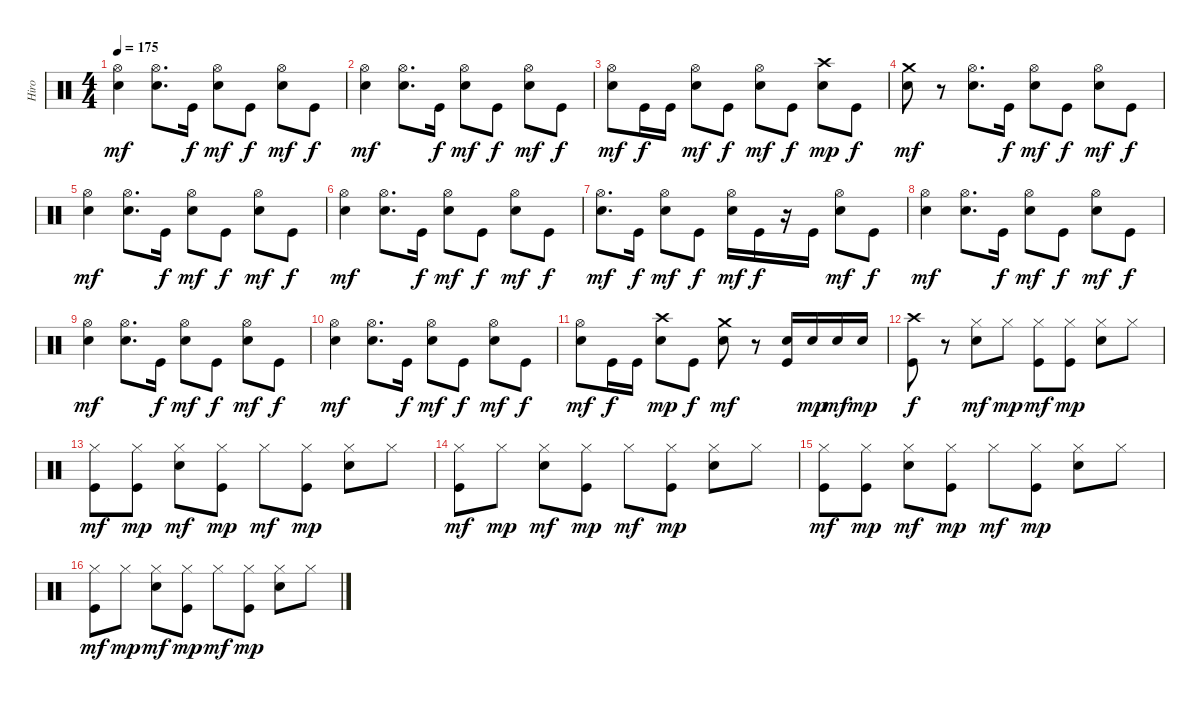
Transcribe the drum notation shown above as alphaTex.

\track ("Hiro" "Hiro") {instrument percussion}
\staff {score}
\articulation defaults
\ts (4 4)
\tempo 175
\clef neutral
\ks c
("Electric Snare (hit)" "Hi-Hat (open)").4{dy mf} ("Electric Snare (hit)" "Hi-Hat (open)").8{d} "Kick (hit)".16{dy f} ("Electric Snare (hit)" "Hi-Hat (open)").8{dy mf} "Kick (hit)".8{dy f} ("Electric Snare (hit)" "Hi-Hat (open)").8{dy mf} "Kick (hit)".8{dy f} |
("Electric Snare (hit)" "Hi-Hat (open)").4{dy mf} ("Electric Snare (hit)" "Hi-Hat (open)").8{d} "Kick (hit)".16{dy f} ("Electric Snare (hit)" "Hi-Hat (open)").8{dy mf} "Kick (hit)".8{dy f} ("Electric Snare (hit)" "Hi-Hat (open)").8{dy mf} "Kick (hit)".8{dy f} |
("Electric Snare (hit)" "Hi-Hat (open)").8{dy mf} "Kick (hit)".16{dy f} "Kick (hit)".16 ("Electric Snare (hit)" "Hi-Hat (open)").8{dy mf} "Kick (hit)".8{dy f} ("Electric Snare (hit)" "Hi-Hat (open)").8{dy mf} "Kick (hit)".8{dy f} ("Crash high (hit)" "Electric Snare (hit)").8{dy mp} "Kick (hit)".8{dy f} |
("Crash medium (hit)" "Electric Snare (hit)").8{dy mf} r.8 ("Electric Snare (hit)" "Hi-Hat (open)").8{d} "Kick (hit)".16{dy f} ("Electric Snare (hit)" "Hi-Hat (open)").8{dy mf} "Kick (hit)".8{dy f} ("Electric Snare (hit)" "Hi-Hat (open)").8{dy mf} "Kick (hit)".8{dy f} |
("Electric Snare (hit)" "Hi-Hat (open)").4{dy mf} ("Electric Snare (hit)" "Hi-Hat (open)").8{d} "Kick (hit)".16{dy f} ("Electric Snare (hit)" "Hi-Hat (open)").8{dy mf} "Kick (hit)".8{dy f} ("Electric Snare (hit)" "Hi-Hat (open)").8{dy mf} "Kick (hit)".8{dy f} |
("Electric Snare (hit)" "Hi-Hat (open)").4{dy mf} ("Electric Snare (hit)" "Hi-Hat (open)").8{d} "Kick (hit)".16{dy f} ("Electric Snare (hit)" "Hi-Hat (open)").8{dy mf} "Kick (hit)".8{dy f} ("Electric Snare (hit)" "Hi-Hat (open)").8{dy mf} "Kick (hit)".8{dy f} |
("Electric Snare (hit)" "Hi-Hat (open)").8{d dy mf} "Kick (hit)".16{dy f} ("Electric Snare (hit)" "Hi-Hat (open)").8{dy mf} "Kick (hit)".8{dy f} ("Electric Snare (hit)" "Hi-Hat (open)").16{dy mf} "Kick (hit)".16{dy f} r.16 "Kick (hit)".16 ("Electric Snare (hit)" "Hi-Hat (open)").8{dy mf} "Kick (hit)".8{dy f} |
("Electric Snare (hit)" "Hi-Hat (open)").4{dy mf} ("Electric Snare (hit)" "Hi-Hat (open)").8{d} "Kick (hit)".16{dy f} ("Electric Snare (hit)" "Hi-Hat (open)").8{dy mf} "Kick (hit)".8{dy f} ("Electric Snare (hit)" "Hi-Hat (open)").8{dy mf} "Kick (hit)".8{dy f} |
("Electric Snare (hit)" "Hi-Hat (open)").4{dy mf} ("Electric Snare (hit)" "Hi-Hat (open)").8{d} "Kick (hit)".16{dy f} ("Electric Snare (hit)" "Hi-Hat (open)").8{dy mf} "Kick (hit)".8{dy f} ("Electric Snare (hit)" "Hi-Hat (open)").8{dy mf} "Kick (hit)".8{dy f} |
("Electric Snare (hit)" "Hi-Hat (open)").4{dy mf} ("Electric Snare (hit)" "Hi-Hat (open)").8{d} "Kick (hit)".16{dy f} ("Electric Snare (hit)" "Hi-Hat (open)").8{dy mf} "Kick (hit)".8{dy f} ("Electric Snare (hit)" "Hi-Hat (open)").8{dy mf} "Kick (hit)".8{dy f} |
("Electric Snare (hit)" "Hi-Hat (open)").8{dy mf} "Kick (hit)".16{dy f} "Kick (hit)".16 ("Crash high (hit)" "Electric Snare (hit)").8{dy mp} "Kick (hit)".8{dy f} ("Crash medium (hit)" "Electric Snare (hit)").8{dy mf} r.8 ("Electric Snare (hit)" "Kick (hit)").16 "Electric Snare (hit)".16{dy mp} "Electric Snare (hit)".16{dy mf} "Electric Snare (hit)".16{dy mp} |
("Crash high (hit)" "Kick (hit)").8{dy f} r.8 ("Hi-Hat (closed)" "Electric Snare (hit)").8{dy mf} "Hi-Hat (closed)".8{dy mp} ("Hi-Hat (closed)" "Kick (hit)").8{dy mf} ("Hi-Hat (closed)" "Kick (hit)").8{dy mp} ("Hi-Hat (closed)" "Electric Snare (hit)").8 "Hi-Hat (closed)".8 |
("Hi-Hat (closed)" "Kick (hit)").8{dy mf} ("Hi-Hat (closed)" "Kick (hit)").8{dy mp} ("Hi-Hat (closed)" "Electric Snare (hit)").8{dy mf} ("Hi-Hat (closed)" "Kick (hit)").8{dy mp} "Hi-Hat (closed)".8{dy mf} ("Hi-Hat (closed)" "Kick (hit)").8{dy mp} ("Hi-Hat (closed)" "Electric Snare (hit)").8 "Hi-Hat (closed)".8 |
("Hi-Hat (closed)" "Kick (hit)").8{dy mf} "Hi-Hat (closed)".8{dy mp} ("Hi-Hat (closed)" "Electric Snare (hit)").8{dy mf} ("Hi-Hat (closed)" "Kick (hit)").8{dy mp} "Hi-Hat (closed)".8{dy mf} ("Hi-Hat (closed)" "Kick (hit)").8{dy mp} ("Hi-Hat (closed)" "Electric Snare (hit)").8 "Hi-Hat (closed)".8 |
("Hi-Hat (closed)" "Kick (hit)").8{dy mf} ("Hi-Hat (closed)" "Kick (hit)").8{dy mp} ("Hi-Hat (closed)" "Electric Snare (hit)").8{dy mf} ("Hi-Hat (closed)" "Kick (hit)").8{dy mp} "Hi-Hat (closed)".8{dy mf} ("Hi-Hat (closed)" "Kick (hit)").8{dy mp} ("Hi-Hat (closed)" "Electric Snare (hit)").8 "Hi-Hat (closed)".8 |
("Hi-Hat (closed)" "Kick (hit)").8{dy mf} "Hi-Hat (closed)".8{dy mp} ("Hi-Hat (closed)" "Electric Snare (hit)").8{dy mf} ("Hi-Hat (closed)" "Kick (hit)").8{dy mp} "Hi-Hat (closed)".8{dy mf} ("Hi-Hat (closed)" "Kick (hit)").8{dy mp} ("Hi-Hat (closed)" "Electric Snare (hit)").8 "Hi-Hat (closed)".8
